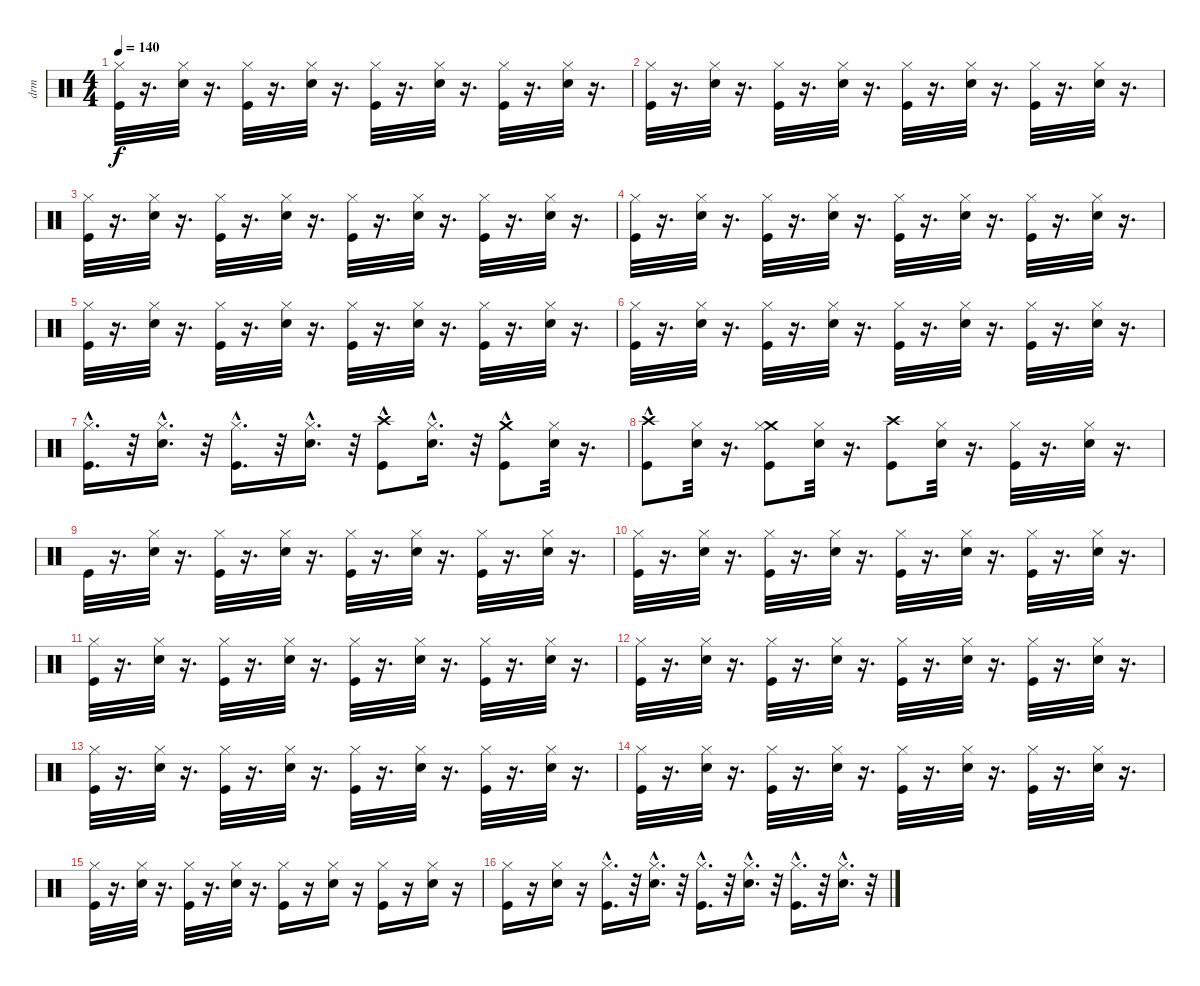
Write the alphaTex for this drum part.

\track ("drm" "drm") {instrument percussion}
\staff {score}
\articulation defaults
\ts (4 4)
\tempo 140
\clef neutral
\ks c
("Kick (hit)" "Hi-Hat (closed)").32{dy f} r.16{d} ("Snare (hit) 2" "Hi-Hat (closed)").32 r.16{d} ("Kick (hit)" "Hi-Hat (closed)").32 r.16{d} ("Snare (hit) 2" "Hi-Hat (closed)").32 r.16{d} ("Kick (hit)" "Hi-Hat (closed)").32 r.16{d} ("Snare (hit) 2" "Hi-Hat (closed)").32 r.16{d} ("Kick (hit)" "Hi-Hat (closed)").32 r.16{d} ("Snare (hit) 2" "Hi-Hat (closed)").32 r.16{d} |
("Kick (hit)" "Hi-Hat (closed)").32 r.16{d} ("Snare (hit) 2" "Hi-Hat (closed)").32 r.16{d} ("Kick (hit)" "Hi-Hat (closed)").32 r.16{d} ("Snare (hit) 2" "Hi-Hat (closed)").32 r.16{d} ("Kick (hit)" "Hi-Hat (closed)").32 r.16{d} ("Snare (hit) 2" "Hi-Hat (closed)").32 r.16{d} ("Kick (hit)" "Hi-Hat (closed)").32 r.16{d} ("Snare (hit) 2" "Hi-Hat (closed)").32 r.16{d} |
("Kick (hit)" "Hi-Hat (closed)").32 r.16{d} ("Snare (hit) 2" "Hi-Hat (closed)").32 r.16{d} ("Kick (hit)" "Hi-Hat (closed)").32 r.16{d} ("Snare (hit) 2" "Hi-Hat (closed)").32 r.16{d} ("Kick (hit)" "Hi-Hat (closed)").32 r.16{d} ("Snare (hit) 2" "Hi-Hat (closed)").32 r.16{d} ("Kick (hit)" "Hi-Hat (closed)").32 r.16{d} ("Snare (hit) 2" "Hi-Hat (closed)").32 r.16{d} |
("Kick (hit)" "Hi-Hat (closed)").32 r.16{d} ("Snare (hit) 2" "Hi-Hat (closed)").32 r.16{d} ("Kick (hit)" "Hi-Hat (closed)").32 r.16{d} ("Snare (hit) 2" "Hi-Hat (closed)").32 r.16{d} ("Kick (hit)" "Hi-Hat (closed)").32 r.16{d} ("Snare (hit) 2" "Hi-Hat (closed)").32 r.16{d} ("Kick (hit)" "Hi-Hat (closed)").32 r.16{d} ("Snare (hit) 2" "Hi-Hat (closed)").32 r.16{d} |
("Kick (hit)" "Hi-Hat (closed)").32 r.16{d} ("Snare (hit) 2" "Hi-Hat (closed)").32 r.16{d} ("Kick (hit)" "Hi-Hat (closed)").32 r.16{d} ("Snare (hit) 2" "Hi-Hat (closed)").32 r.16{d} ("Kick (hit)" "Hi-Hat (closed)").32 r.16{d} ("Snare (hit) 2" "Hi-Hat (closed)").32 r.16{d} ("Kick (hit)" "Hi-Hat (closed)").32 r.16{d} ("Snare (hit) 2" "Hi-Hat (closed)").32 r.16{d} |
("Kick (hit)" "Hi-Hat (closed)").32 r.16{d} ("Snare (hit) 2" "Hi-Hat (closed)").32 r.16{d} ("Kick (hit)" "Hi-Hat (closed)").32 r.16{d} ("Snare (hit) 2" "Hi-Hat (closed)").32 r.16{d} ("Kick (hit)" "Hi-Hat (closed)").32 r.16{d} ("Snare (hit) 2" "Hi-Hat (closed)").32 r.16{d} ("Kick (hit)" "Hi-Hat (closed)").32 r.16{d} ("Snare (hit) 2" "Hi-Hat (closed)").32 r.16{d} |
("Kick (hit)"{hac} "Hi-Hat (closed)"{hac}).16{d} r.32 ("Snare (hit) 2"{hac} "Hi-Hat (closed)"{hac}).16{d} r.32 ("Kick (hit)"{hac} "Hi-Hat (closed)"{hac}).16{d} r.32 ("Snare (hit) 2"{hac} "Hi-Hat (closed)"{hac}).16{d} r.32 ("Crash high (hit)" "Kick (hit)"{hac}).8 ("Snare (hit) 2"{hac} "Hi-Hat (closed)"{hac}).16{d} r.32 ("Crash medium (hit)" "Kick (hit)"{hac}).8 ("Snare (hit) 2" "Hi-Hat (closed)").32 r.16{d} |
("Crash high (hit)" "Kick (hit)"{hac}).8 ("Snare (hit) 2" "Hi-Hat (closed)").32 r.16{d} ("Crash medium (hit)" "Kick (hit)" "Hi-Hat (closed)").8 ("Snare (hit) 2" "Hi-Hat (closed)").32 r.16{d} ("Crash high (hit)" "Kick (hit)").8 ("Hi-Hat (closed)" "Snare (hit) 2").32 r.16{d} ("Hi-Hat (closed)" "Kick (hit)").32 r.16{d} ("Hi-Hat (closed)" "Snare (hit) 2").32 r.16{d} |
"Kick (hit)".32 r.16{d} ("Snare (hit) 2" "Hi-Hat (closed)").32 r.16{d} ("Kick (hit)" "Hi-Hat (closed)").32 r.16{d} ("Snare (hit) 2" "Hi-Hat (closed)").32 r.16{d} ("Kick (hit)" "Hi-Hat (closed)").32 r.16{d} ("Snare (hit) 2" "Hi-Hat (closed)").32 r.16{d} ("Kick (hit)" "Hi-Hat (closed)").32 r.16{d} ("Snare (hit) 2" "Hi-Hat (closed)").32 r.16{d} |
("Kick (hit)" "Hi-Hat (closed)").32 r.16{d} ("Snare (hit) 2" "Hi-Hat (closed)").32 r.16{d} ("Kick (hit)" "Hi-Hat (closed)").32 r.16{d} ("Snare (hit) 2" "Hi-Hat (closed)").32 r.16{d} ("Kick (hit)" "Hi-Hat (closed)").32 r.16{d} ("Snare (hit) 2" "Hi-Hat (closed)").32 r.16{d} ("Kick (hit)" "Hi-Hat (closed)").32 r.16{d} ("Snare (hit) 2" "Hi-Hat (closed)").32 r.16{d} |
("Kick (hit)" "Hi-Hat (closed)").32 r.16{d} ("Snare (hit) 2" "Hi-Hat (closed)").32 r.16{d} ("Kick (hit)" "Hi-Hat (closed)").32 r.16{d} ("Snare (hit) 2" "Hi-Hat (closed)").32 r.16{d} ("Kick (hit)" "Hi-Hat (closed)").32 r.16{d} ("Snare (hit) 2" "Hi-Hat (closed)").32 r.16{d} ("Kick (hit)" "Hi-Hat (closed)").32 r.16{d} ("Snare (hit) 2" "Hi-Hat (closed)").32 r.16{d} |
("Kick (hit)" "Hi-Hat (closed)").32 r.16{d} ("Snare (hit) 2" "Hi-Hat (closed)").32 r.16{d} ("Kick (hit)" "Hi-Hat (closed)").32 r.16{d} ("Snare (hit) 2" "Hi-Hat (closed)").32 r.16{d} ("Kick (hit)" "Hi-Hat (closed)").32 r.16{d} ("Snare (hit) 2" "Hi-Hat (closed)").32 r.16{d} ("Kick (hit)" "Hi-Hat (closed)").32 r.16{d} ("Snare (hit) 2" "Hi-Hat (closed)").32 r.16{d} |
("Kick (hit)" "Hi-Hat (closed)").32 r.16{d} ("Snare (hit) 2" "Hi-Hat (closed)").32 r.16{d} ("Kick (hit)" "Hi-Hat (closed)").32 r.16{d} ("Snare (hit) 2" "Hi-Hat (closed)").32 r.16{d} ("Kick (hit)" "Hi-Hat (closed)").32 r.16{d} ("Snare (hit) 2" "Hi-Hat (closed)").32 r.16{d} ("Kick (hit)" "Hi-Hat (closed)").32 r.16{d} ("Snare (hit) 2" "Hi-Hat (closed)").32 r.16{d} |
("Kick (hit)" "Hi-Hat (closed)").32 r.16{d} ("Snare (hit) 2" "Hi-Hat (closed)").32 r.16{d} ("Kick (hit)" "Hi-Hat (closed)").32 r.16{d} ("Snare (hit) 2" "Hi-Hat (closed)").32 r.16{d} ("Kick (hit)" "Hi-Hat (closed)").32 r.16{d} ("Snare (hit) 2" "Hi-Hat (closed)").32 r.16{d} ("Kick (hit)" "Hi-Hat (closed)").32 r.16{d} ("Snare (hit) 2" "Hi-Hat (closed)").32 r.16{d} |
("Kick (hit)" "Hi-Hat (closed)").32 r.16{d} ("Snare (hit) 2" "Hi-Hat (closed)").32 r.16{d} ("Kick (hit)" "Hi-Hat (closed)").32 r.16{d} ("Snare (hit) 2" "Hi-Hat (closed)").32 r.16{d} ("Kick (hit)" "Hi-Hat (closed)").16 r.16 ("Snare (hit) 2" "Hi-Hat (closed)").16 r.16 ("Kick (hit)" "Hi-Hat (closed)").16 r.16 ("Snare (hit) 2" "Hi-Hat (closed)").16 r.16 |
("Kick (hit)" "Hi-Hat (closed)").16 r.16 ("Hi-Hat (closed)" "Snare (hit) 2").16 r.16 ("Kick (hit)"{hac} "Hi-Hat (closed)"{hac}).16{d} r.32 ("Snare (hit) 2" "Hi-Hat (closed)"{hac}).16{d} r.32 ("Kick (hit)"{hac} "Hi-Hat (closed)"{hac}).16{d} r.32 ("Hi-Hat (closed)" "Snare (hit) 2"{hac}).16{d} r.32 ("Kick (hit)" "Hi-Hat (closed)"{hac}).16{d} r.32 ("Hi-Hat (closed)" "Snare (hit) 2"{hac}).16{d} r.32
